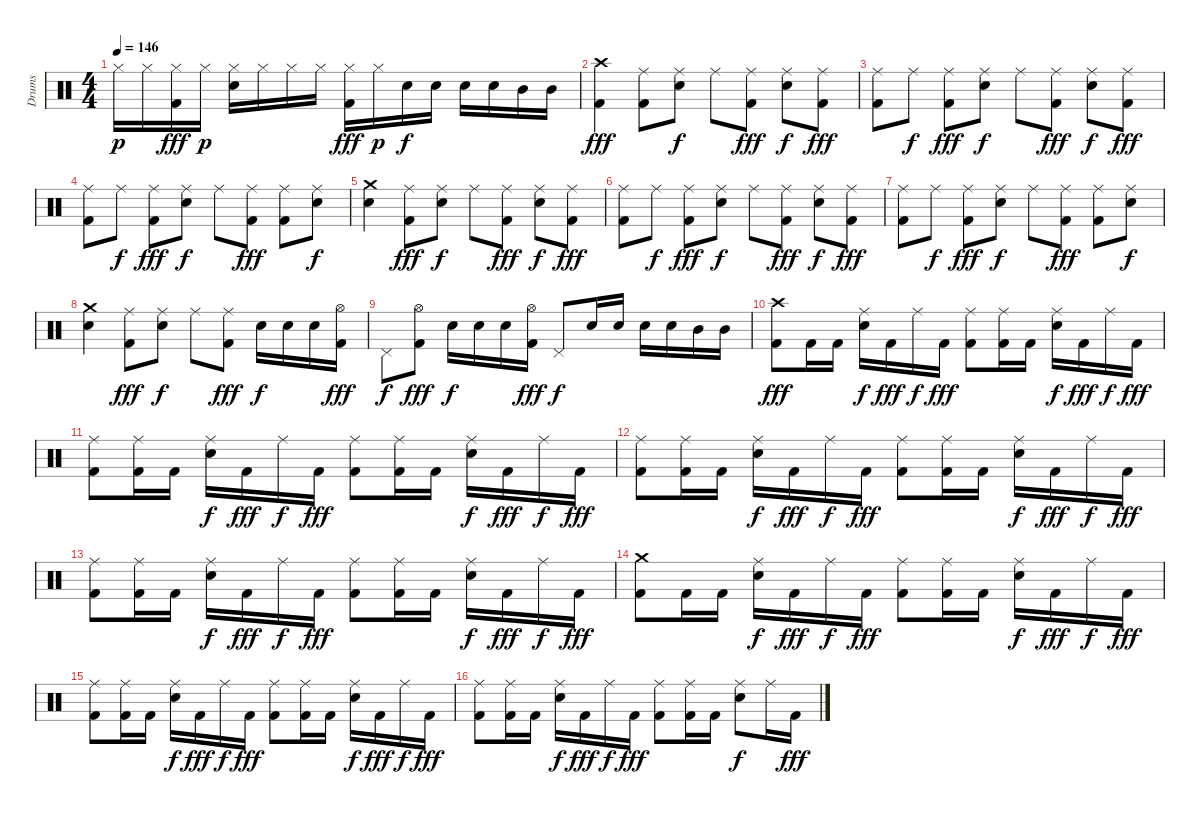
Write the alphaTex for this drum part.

\track ("Drums" "Drums") {instrument percussion}
\staff {score}
\articulation defaults
\ts (4 4)
\tempo 146
\clef neutral
\ks c "Hi-Hat (closed)".16{dy p} "Hi-Hat (closed)".16
("Hi-Hat (closed)" "Kick (hit) 2").16{dy fff} "Hi-Hat (closed)".16{dy p} ("Hi-Hat (closed)" "Snare (hit) 2").16 "Hi-Hat (closed)".16 "Hi-Hat (closed)".16 "Hi-Hat (closed)".16 ("Hi-Hat (closed)" "Kick (hit) 2").16{dy fff} "Hi-Hat (closed)".16{dy p} "Snare (hit) 2".16{dy f} "Snare (hit) 2".16 "Snare (hit) 2".16 "Snare (hit) 2".16 "Mid Tom (hit)".16 "Mid Tom (hit)".16 |
("Crash high (hit)" "Kick (hit) 2").4{dy fff} ("Ride (middle)" "Kick (hit) 2").8 ("Ride (middle)" "Snare (hit) 2").8{dy f} "Ride (middle)".8 ("Ride (middle)" "Kick (hit) 2").8{dy fff} ("Ride (middle)" "Snare (hit) 2").8{dy f} ("Ride (middle)" "Kick (hit) 2").8{dy fff} |
("Ride (middle)" "Kick (hit) 2").8 "Ride (middle)".8{dy f} ("Ride (middle)" "Kick (hit) 2").8{dy fff} ("Ride (middle)" "Snare (hit) 2").8{dy f} "Ride (middle)".8 ("Ride (middle)" "Kick (hit) 2").8{dy fff} ("Ride (middle)" "Snare (hit) 2").8{dy f} ("Ride (middle)" "Kick (hit) 2").8{dy fff} |
("Ride (middle)" "Kick (hit) 2").8 "Ride (middle)".8{dy f} ("Ride (middle)" "Kick (hit) 2").8{dy fff} ("Ride (middle)" "Snare (hit) 2").8{dy f} "Ride (middle)".8 ("Ride (middle)" "Kick (hit) 2").8{dy fff} ("Ride (middle)" "Kick (hit) 2").8 ("Ride (middle)" "Snare (hit) 2").8{dy f} |
("Crash medium (hit)" "Snare (hit) 2").4 ("Ride (middle)" "Kick (hit) 2").8{dy fff} ("Ride (middle)" "Snare (hit) 2").8{dy f} "Ride (middle)".8 ("Ride (middle)" "Kick (hit) 2").8{dy fff} ("Ride (middle)" "Snare (hit) 2").8{dy f} ("Ride (middle)" "Kick (hit) 2").8{dy fff} |
("Ride (middle)" "Kick (hit) 2").8 "Ride (middle)".8{dy f} ("Ride (middle)" "Kick (hit) 2").8{dy fff} ("Ride (middle)" "Snare (hit) 2").8{dy f} "Ride (middle)".8 ("Ride (middle)" "Kick (hit) 2").8{dy fff} ("Ride (middle)" "Snare (hit) 2").8{dy f} ("Ride (middle)" "Kick (hit) 2").8{dy fff} |
("Ride (middle)" "Kick (hit) 2").8 "Ride (middle)".8{dy f} ("Ride (middle)" "Kick (hit) 2").8{dy fff} ("Ride (middle)" "Snare (hit) 2").8{dy f} "Ride (middle)".8 ("Ride (middle)" "Kick (hit) 2").8{dy fff} ("Ride (middle)" "Kick (hit) 2").8 ("Ride (middle)" "Snare (hit) 2").8{dy f} |
("Crash medium (hit)" "Snare (hit) 2").4 ("Ride (middle)" "Kick (hit) 2").8{dy fff} ("Ride (middle)" "Snare (hit) 2").8{dy f} "Ride (middle)".8 ("Ride (middle)" "Kick (hit) 2").8{dy fff} "Snare (hit) 2".16{dy f} "Snare (hit) 2".16 "Snare (hit) 2".16 ("Hi-Hat (open)" "Kick (hit) 2").16{dy fff} |
"Pedal Hi-Hat (hit)".8{dy f} ("Hi-Hat (open)" "Kick (hit) 2").8{dy fff} "Snare (hit) 2".16{dy f} "Snare (hit) 2".16 "Snare (hit) 2".16 ("Hi-Hat (open)" "Kick (hit) 2").16{dy fff} "Pedal Hi-Hat (hit)".8{dy f} "Snare (hit) 2".16 "Snare (hit) 2".16 "Snare (hit) 2".16 "Snare (hit) 2".16 "Mid Tom (hit)".16 "Mid Tom (hit)".16 |
("Crash high (hit)" "Kick (hit) 2").8{dy fff} "Kick (hit) 2".16 "Kick (hit) 2".16 ("Ride (middle)" "Snare (hit) 2").16{dy f} "Kick (hit) 2".16{dy fff} "Ride (middle)".16{dy f} "Kick (hit) 2".16{dy fff} ("Ride (middle)" "Kick (hit) 2").8 ("Ride (middle)" "Kick (hit) 2").16 "Kick (hit) 2".16 ("Ride (middle)" "Snare (hit) 2").16{dy f} "Kick (hit) 2".16{dy fff} "Ride (middle)".16{dy f} "Kick (hit) 2".16{dy fff} |
("Ride (middle)" "Kick (hit) 2").8 ("Ride (middle)" "Kick (hit) 2").16 "Kick (hit) 2".16 ("Ride (middle)" "Snare (hit) 2").16{dy f} "Kick (hit) 2".16{dy fff} "Ride (middle)".16{dy f} "Kick (hit) 2".16{dy fff} ("Ride (middle)" "Kick (hit) 2").8 ("Ride (middle)" "Kick (hit) 2").16 "Kick (hit) 2".16 ("Ride (middle)" "Snare (hit) 2").16{dy f} "Kick (hit) 2".16{dy fff} "Ride (middle)".16{dy f} "Kick (hit) 2".16{dy fff} |
("Ride (middle)" "Kick (hit) 2").8 ("Ride (middle)" "Kick (hit) 2").16 "Kick (hit) 2".16 ("Ride (middle)" "Snare (hit) 2").16{dy f} "Kick (hit) 2".16{dy fff} "Ride (middle)".16{dy f} "Kick (hit) 2".16{dy fff} ("Ride (middle)" "Kick (hit) 2").8 ("Ride (middle)" "Kick (hit) 2").16 "Kick (hit) 2".16 ("Ride (middle)" "Snare (hit) 2").16{dy f} "Kick (hit) 2".16{dy fff} "Ride (middle)".16{dy f} "Kick (hit) 2".16{dy fff} |
("Ride (middle)" "Kick (hit) 2").8 ("Ride (middle)" "Kick (hit) 2").16 "Kick (hit) 2".16 ("Ride (middle)" "Snare (hit) 2").16{dy f} "Kick (hit) 2".16{dy fff} "Ride (middle)".16{dy f} "Kick (hit) 2".16{dy fff} ("Ride (middle)" "Kick (hit) 2").8 ("Ride (middle)" "Kick (hit) 2").16 "Kick (hit) 2".16 ("Ride (middle)" "Snare (hit) 2").16{dy f} "Kick (hit) 2".16{dy fff} "Ride (middle)".16{dy f} "Kick (hit) 2".16{dy fff} |
("Crash medium (hit)" "Kick (hit) 2").8 "Kick (hit) 2".16 "Kick (hit) 2".16 ("Ride (middle)" "Snare (hit) 2").16{dy f} "Kick (hit) 2".16{dy fff} "Ride (middle)".16{dy f} "Kick (hit) 2".16{dy fff} ("Ride (middle)" "Kick (hit) 2").8 ("Ride (middle)" "Kick (hit) 2").16 "Kick (hit) 2".16 ("Ride (middle)" "Snare (hit) 2").16{dy f} "Kick (hit) 2".16{dy fff} "Ride (middle)".16{dy f} "Kick (hit) 2".16{dy fff} |
("Ride (middle)" "Kick (hit) 2").8 ("Ride (middle)" "Kick (hit) 2").16 "Kick (hit) 2".16 ("Ride (middle)" "Snare (hit) 2").16{dy f} "Kick (hit) 2".16{dy fff} "Ride (middle)".16{dy f} "Kick (hit) 2".16{dy fff} ("Ride (middle)" "Kick (hit) 2").8 ("Ride (middle)" "Kick (hit) 2").16 "Kick (hit) 2".16 ("Ride (middle)" "Snare (hit) 2").16{dy f} "Kick (hit) 2".16{dy fff} "Ride (middle)".16{dy f} "Kick (hit) 2".16{dy fff} |
("Ride (middle)" "Kick (hit) 2").8 ("Ride (middle)" "Kick (hit) 2").16 "Kick (hit) 2".16 ("Ride (middle)" "Snare (hit) 2").16{dy f} "Kick (hit) 2".16{dy fff} "Ride (middle)".16{dy f} "Kick (hit) 2".16{dy fff} ("Ride (middle)" "Kick (hit) 2").8 ("Ride (middle)" "Kick (hit) 2").16 "Kick (hit) 2".16 ("Ride (middle)" "Snare (hit) 2").8{dy f} "Ride (middle)".16 "Kick (hit) 2".16{dy fff}
